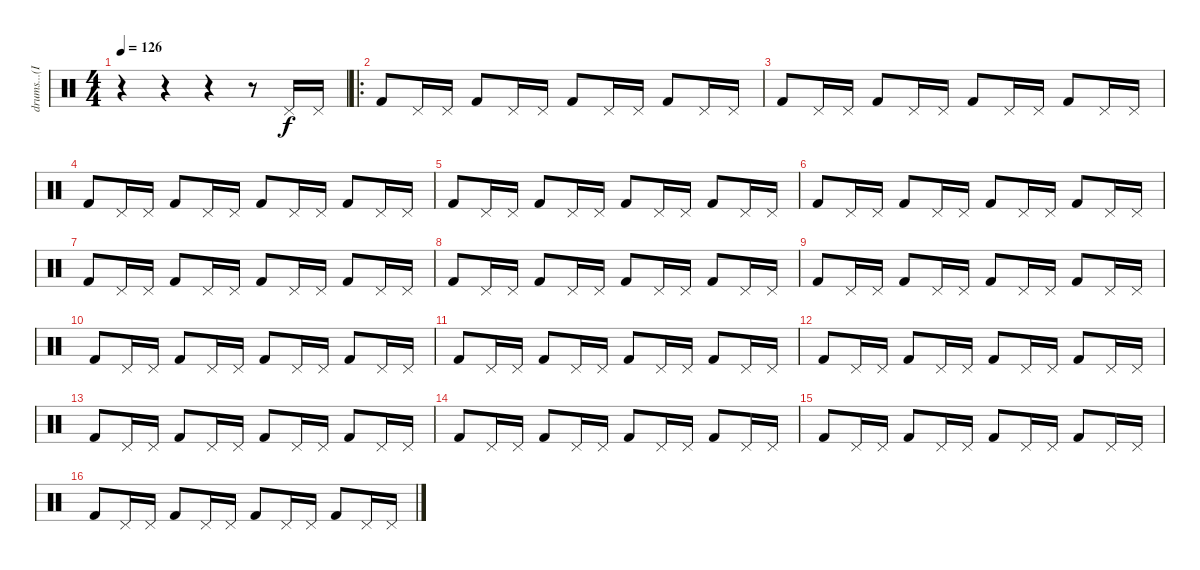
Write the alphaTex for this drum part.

\track ("drums...(I guess...)" "drums...(I") {instrument percussion}
\staff {score}
\articulation defaults
\ts (4 4)
\tempo 126
\clef neutral
\ks c
r.4{dy f} r.4 r.4 r.8 "Pedal Hi-Hat (hit)".16 "Pedal Hi-Hat (hit)".16 |
\ro "Kick (hit) 2".8 "Pedal Hi-Hat (hit)".16 "Pedal Hi-Hat (hit)".16 "Kick (hit) 2".8 "Pedal Hi-Hat (hit)".16 "Pedal Hi-Hat (hit)".16 "Kick (hit) 2".8 "Pedal Hi-Hat (hit)".16 "Pedal Hi-Hat (hit)".16 "Kick (hit) 2".8 "Pedal Hi-Hat (hit)".16 "Pedal Hi-Hat (hit)".16
|
"Kick (hit) 2".8 "Pedal Hi-Hat (hit)".16 "Pedal Hi-Hat (hit)".16 "Kick (hit) 2".8 "Pedal Hi-Hat (hit)".16 "Pedal Hi-Hat (hit)".16 "Kick (hit) 2".8 "Pedal Hi-Hat (hit)".16 "Pedal Hi-Hat (hit)".16 "Kick (hit) 2".8 "Pedal Hi-Hat (hit)".16 "Pedal Hi-Hat (hit)".16 |
"Kick (hit) 2".8 "Pedal Hi-Hat (hit)".16 "Pedal Hi-Hat (hit)".16 "Kick (hit) 2".8 "Pedal Hi-Hat (hit)".16 "Pedal Hi-Hat (hit)".16 "Kick (hit) 2".8 "Pedal Hi-Hat (hit)".16 "Pedal Hi-Hat (hit)".16 "Kick (hit) 2".8 "Pedal Hi-Hat (hit)".16 "Pedal Hi-Hat (hit)".16 |
"Kick (hit) 2".8 "Pedal Hi-Hat (hit)".16 "Pedal Hi-Hat (hit)".16 "Kick (hit) 2".8 "Pedal Hi-Hat (hit)".16 "Pedal Hi-Hat (hit)".16 "Kick (hit) 2".8 "Pedal Hi-Hat (hit)".16 "Pedal Hi-Hat (hit)".16 "Kick (hit) 2".8 "Pedal Hi-Hat (hit)".16 "Pedal Hi-Hat (hit)".16 |
"Kick (hit) 2".8 "Pedal Hi-Hat (hit)".16 "Pedal Hi-Hat (hit)".16 "Kick (hit) 2".8 "Pedal Hi-Hat (hit)".16 "Pedal Hi-Hat (hit)".16 "Kick (hit) 2".8 "Pedal Hi-Hat (hit)".16 "Pedal Hi-Hat (hit)".16 "Kick (hit) 2".8 "Pedal Hi-Hat (hit)".16 "Pedal Hi-Hat (hit)".16 |
"Kick (hit) 2".8 "Pedal Hi-Hat (hit)".16 "Pedal Hi-Hat (hit)".16 "Kick (hit) 2".8 "Pedal Hi-Hat (hit)".16 "Pedal Hi-Hat (hit)".16 "Kick (hit) 2".8 "Pedal Hi-Hat (hit)".16 "Pedal Hi-Hat (hit)".16 "Kick (hit) 2".8 "Pedal Hi-Hat (hit)".16 "Pedal Hi-Hat (hit)".16 |
"Kick (hit) 2".8 "Pedal Hi-Hat (hit)".16 "Pedal Hi-Hat (hit)".16 "Kick (hit) 2".8 "Pedal Hi-Hat (hit)".16 "Pedal Hi-Hat (hit)".16 "Kick (hit) 2".8 "Pedal Hi-Hat (hit)".16 "Pedal Hi-Hat (hit)".16 "Kick (hit) 2".8 "Pedal Hi-Hat (hit)".16 "Pedal Hi-Hat (hit)".16 |
"Kick (hit) 2".8 "Pedal Hi-Hat (hit)".16 "Pedal Hi-Hat (hit)".16 "Kick (hit) 2".8 "Pedal Hi-Hat (hit)".16 "Pedal Hi-Hat (hit)".16 "Kick (hit) 2".8 "Pedal Hi-Hat (hit)".16 "Pedal Hi-Hat (hit)".16 "Kick (hit) 2".8 "Pedal Hi-Hat (hit)".16 "Pedal Hi-Hat (hit)".16 |
"Kick (hit) 2".8 "Pedal Hi-Hat (hit)".16 "Pedal Hi-Hat (hit)".16 "Kick (hit) 2".8 "Pedal Hi-Hat (hit)".16 "Pedal Hi-Hat (hit)".16 "Kick (hit) 2".8 "Pedal Hi-Hat (hit)".16 "Pedal Hi-Hat (hit)".16 "Kick (hit) 2".8 "Pedal Hi-Hat (hit)".16 "Pedal Hi-Hat (hit)".16 |
"Kick (hit) 2".8 "Pedal Hi-Hat (hit)".16 "Pedal Hi-Hat (hit)".16 "Kick (hit) 2".8 "Pedal Hi-Hat (hit)".16 "Pedal Hi-Hat (hit)".16 "Kick (hit) 2".8 "Pedal Hi-Hat (hit)".16 "Pedal Hi-Hat (hit)".16 "Kick (hit) 2".8 "Pedal Hi-Hat (hit)".16 "Pedal Hi-Hat (hit)".16 |
"Kick (hit) 2".8 "Pedal Hi-Hat (hit)".16 "Pedal Hi-Hat (hit)".16 "Kick (hit) 2".8 "Pedal Hi-Hat (hit)".16 "Pedal Hi-Hat (hit)".16 "Kick (hit) 2".8 "Pedal Hi-Hat (hit)".16 "Pedal Hi-Hat (hit)".16 "Kick (hit) 2".8 "Pedal Hi-Hat (hit)".16 "Pedal Hi-Hat (hit)".16 |
"Kick (hit) 2".8 "Pedal Hi-Hat (hit)".16 "Pedal Hi-Hat (hit)".16 "Kick (hit) 2".8 "Pedal Hi-Hat (hit)".16 "Pedal Hi-Hat (hit)".16 "Kick (hit) 2".8 "Pedal Hi-Hat (hit)".16 "Pedal Hi-Hat (hit)".16 "Kick (hit) 2".8 "Pedal Hi-Hat (hit)".16 "Pedal Hi-Hat (hit)".16 |
"Kick (hit) 2".8 "Pedal Hi-Hat (hit)".16 "Pedal Hi-Hat (hit)".16 "Kick (hit) 2".8 "Pedal Hi-Hat (hit)".16 "Pedal Hi-Hat (hit)".16 "Kick (hit) 2".8 "Pedal Hi-Hat (hit)".16 "Pedal Hi-Hat (hit)".16 "Kick (hit) 2".8 "Pedal Hi-Hat (hit)".16 "Pedal Hi-Hat (hit)".16 |
"Kick (hit) 2".8 "Pedal Hi-Hat (hit)".16 "Pedal Hi-Hat (hit)".16 "Kick (hit) 2".8 "Pedal Hi-Hat (hit)".16 "Pedal Hi-Hat (hit)".16 "Kick (hit) 2".8 "Pedal Hi-Hat (hit)".16 "Pedal Hi-Hat (hit)".16 "Kick (hit) 2".8 "Pedal Hi-Hat (hit)".16 "Pedal Hi-Hat (hit)".16 |
"Kick (hit) 2".8 "Pedal Hi-Hat (hit)".16 "Pedal Hi-Hat (hit)".16 "Kick (hit) 2".8 "Pedal Hi-Hat (hit)".16 "Pedal Hi-Hat (hit)".16 "Kick (hit) 2".8 "Pedal Hi-Hat (hit)".16 "Pedal Hi-Hat (hit)".16 "Kick (hit) 2".8 "Pedal Hi-Hat (hit)".16 "Pedal Hi-Hat (hit)".16
